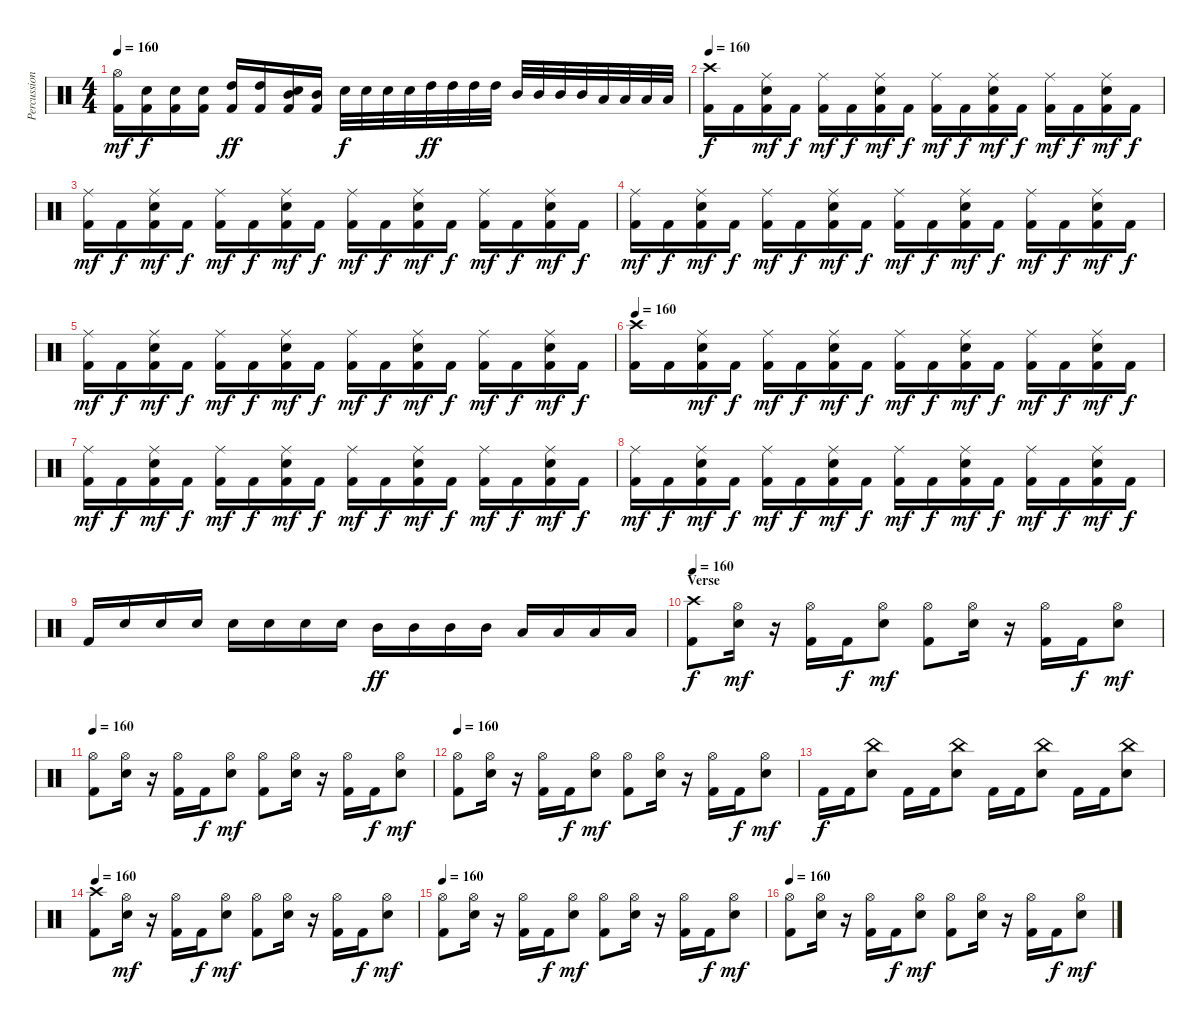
\track ("Percussion" "Percussion") {instrument percussion}
\staff {score}
\articulation defaults
\ts (4 4)
\tempo 160
\clef neutral
\ks c
("Hi-Hat (open)" "Kick (hit) 2").16{dy mf} ("Electric Snare (hit)" "Kick (hit) 2").16{dy f} ("Electric Snare (hit)" "Kick (hit) 2").16 ("Electric Snare (hit)" "Kick (hit) 2").16 ("High Tom (hit)" "Kick (hit) 2").16{dy ff} ("High Tom (hit)" "Kick (hit) 2").16 ("Mid Tom (hit)" "Electric Snare (hit)" "Kick (hit) 2").16 ("Mid Tom (hit)" "Kick (hit) 2").16 "Electric Snare (hit)".32{dy f} "Electric Snare (hit)".32 "Electric Snare (hit)".32 "Electric Snare (hit)".32 "High Tom (hit)".32{dy ff} "High Tom (hit)".32 "High Tom (hit)".32 "High Tom (hit)".32 "Mid Tom (hit)".32 "Mid Tom (hit)".32 "Mid Tom (hit)".32 "Mid Tom (hit)".32 "Low Tom (hit)".32 "Low Tom (hit)".32 "Low Tom (hit)".32 "Low Tom (hit)".32 |
\tempo 160
("Crash high (hit)" "Kick (hit) 2").16{dy f} "Kick (hit) 2".16 ("Ride (middle)" "Electric Snare (hit)" "Kick (hit) 2").16{dy mf} "Kick (hit) 2".16{dy f} ("Ride (middle)" "Kick (hit) 2").16{dy mf} "Kick (hit) 2".16{dy f} ("Ride (middle)" "Electric Snare (hit)" "Kick (hit) 2").16{dy mf} "Kick (hit) 2".16{dy f} ("Ride (middle)" "Kick (hit) 2").16{dy mf} "Kick (hit) 2".16{dy f} ("Ride (middle)" "Electric Snare (hit)" "Kick (hit) 2").16{dy mf} "Kick (hit) 2".16{dy f} ("Ride (middle)" "Kick (hit) 2").16{dy mf} "Kick (hit) 2".16{dy f} ("Ride (middle)" "Electric Snare (hit)" "Kick (hit) 2").16{dy mf} "Kick (hit) 2".16{dy f} |
("Ride (middle)" "Kick (hit) 2").16{dy mf} "Kick (hit) 2".16{dy f} ("Ride (middle)" "Electric Snare (hit)" "Kick (hit) 2").16{dy mf} "Kick (hit) 2".16{dy f} ("Ride (middle)" "Kick (hit) 2").16{dy mf} "Kick (hit) 2".16{dy f} ("Ride (middle)" "Electric Snare (hit)" "Kick (hit) 2").16{dy mf} "Kick (hit) 2".16{dy f} ("Ride (middle)" "Kick (hit) 2").16{dy mf} "Kick (hit) 2".16{dy f} ("Ride (middle)" "Electric Snare (hit)" "Kick (hit) 2").16{dy mf} "Kick (hit) 2".16{dy f} ("Ride (middle)" "Kick (hit) 2").16{dy mf} "Kick (hit) 2".16{dy f} ("Ride (middle)" "Electric Snare (hit)" "Kick (hit) 2").16{dy mf} "Kick (hit) 2".16{dy f} |
("Ride (middle)" "Kick (hit) 2").16{dy mf} "Kick (hit) 2".16{dy f} ("Ride (middle)" "Electric Snare (hit)" "Kick (hit) 2").16{dy mf} "Kick (hit) 2".16{dy f} ("Ride (middle)" "Kick (hit) 2").16{dy mf} "Kick (hit) 2".16{dy f} ("Ride (middle)" "Electric Snare (hit)" "Kick (hit) 2").16{dy mf} "Kick (hit) 2".16{dy f} ("Ride (middle)" "Kick (hit) 2").16{dy mf} "Kick (hit) 2".16{dy f} ("Ride (middle)" "Electric Snare (hit)" "Kick (hit) 2").16{dy mf} "Kick (hit) 2".16{dy f} ("Ride (middle)" "Kick (hit) 2").16{dy mf} "Kick (hit) 2".16{dy f} ("Ride (middle)" "Electric Snare (hit)" "Kick (hit) 2").16{dy mf} "Kick (hit) 2".16{dy f} |
("Ride (middle)" "Kick (hit) 2").16{dy mf} "Kick (hit) 2".16{dy f} ("Ride (middle)" "Electric Snare (hit)" "Kick (hit) 2").16{dy mf} "Kick (hit) 2".16{dy f} ("Ride (middle)" "Kick (hit) 2").16{dy mf} "Kick (hit) 2".16{dy f} ("Ride (middle)" "Electric Snare (hit)" "Kick (hit) 2").16{dy mf} "Kick (hit) 2".16{dy f} ("Ride (middle)" "Kick (hit) 2").16{dy mf} "Kick (hit) 2".16{dy f} ("Ride (middle)" "Electric Snare (hit)" "Kick (hit) 2").16{dy mf} "Kick (hit) 2".16{dy f} ("Ride (middle)" "Kick (hit) 2").16{dy mf} "Kick (hit) 2".16{dy f} ("Ride (middle)" "Electric Snare (hit)" "Kick (hit) 2").16{dy mf} "Kick (hit) 2".16{dy f} |
\tempo 160
("Crash high (hit)" "Kick (hit) 2").16 "Kick (hit) 2".16 ("Ride (middle)" "Electric Snare (hit)" "Kick (hit) 2").16{dy mf} "Kick (hit) 2".16{dy f} ("Ride (middle)" "Kick (hit) 2").16{dy mf} "Kick (hit) 2".16{dy f} ("Ride (middle)" "Electric Snare (hit)" "Kick (hit) 2").16{dy mf} "Kick (hit) 2".16{dy f} ("Ride (middle)" "Kick (hit) 2").16{dy mf} "Kick (hit) 2".16{dy f} ("Ride (middle)" "Electric Snare (hit)" "Kick (hit) 2").16{dy mf} "Kick (hit) 2".16{dy f} ("Ride (middle)" "Kick (hit) 2").16{dy mf} "Kick (hit) 2".16{dy f} ("Ride (middle)" "Electric Snare (hit)" "Kick (hit) 2").16{dy mf} "Kick (hit) 2".16{dy f} |
("Ride (middle)" "Kick (hit) 2").16{dy mf} "Kick (hit) 2".16{dy f} ("Ride (middle)" "Electric Snare (hit)" "Kick (hit) 2").16{dy mf} "Kick (hit) 2".16{dy f} ("Ride (middle)" "Kick (hit) 2").16{dy mf} "Kick (hit) 2".16{dy f} ("Ride (middle)" "Electric Snare (hit)" "Kick (hit) 2").16{dy mf} "Kick (hit) 2".16{dy f} ("Ride (middle)" "Kick (hit) 2").16{dy mf} "Kick (hit) 2".16{dy f} ("Ride (middle)" "Electric Snare (hit)" "Kick (hit) 2").16{dy mf} "Kick (hit) 2".16{dy f} ("Ride (middle)" "Kick (hit) 2").16{dy mf} "Kick (hit) 2".16{dy f} ("Ride (middle)" "Electric Snare (hit)" "Kick (hit) 2").16{dy mf} "Kick (hit) 2".16{dy f} |
("Ride (middle)" "Kick (hit) 2").16{dy mf} "Kick (hit) 2".16{dy f} ("Ride (middle)" "Electric Snare (hit)" "Kick (hit) 2").16{dy mf} "Kick (hit) 2".16{dy f} ("Ride (middle)" "Kick (hit) 2").16{dy mf} "Kick (hit) 2".16{dy f} ("Ride (middle)" "Electric Snare (hit)" "Kick (hit) 2").16{dy mf} "Kick (hit) 2".16{dy f} ("Ride (middle)" "Kick (hit) 2").16{dy mf} "Kick (hit) 2".16{dy f} ("Ride (middle)" "Electric Snare (hit)" "Kick (hit) 2").16{dy mf} "Kick (hit) 2".16{dy f} ("Ride (middle)" "Kick (hit) 2").16{dy mf} "Kick (hit) 2".16{dy f} ("Ride (middle)" "Electric Snare (hit)" "Kick (hit) 2").16{dy mf} "Kick (hit) 2".16{dy f} |
"Kick (hit) 2".16 "Electric Snare (hit)".16 "Electric Snare (hit)".16 "Electric Snare (hit)".16 "Electric Snare (hit)".16 "Electric Snare (hit)".16 "Electric Snare (hit)".16 "Electric Snare (hit)".16 "Mid Tom (hit)".16{dy ff} "Mid Tom (hit)".16 "Mid Tom (hit)".16 "Mid Tom (hit)".16 "Low Tom (hit)".16 "Low Tom (hit)".16 "Low Tom (hit)".16 "Low Tom (hit)".16 |
\section ("" "Verse")
\tempo 160
("Crash high (hit)" "Kick (hit) 2").8{dy f} ("Hi-Hat (open)" "Electric Snare (hit)").16{dy mf} r.16 ("Hi-Hat (open)" "Kick (hit) 2").16 "Kick (hit) 2".16{dy f} ("Hi-Hat (open)" "Electric Snare (hit)").8{dy mf} ("Hi-Hat (open)" "Kick (hit) 2").8 ("Hi-Hat (open)" "Electric Snare (hit)").16 r.16 ("Hi-Hat (open)" "Kick (hit) 2").16 "Kick (hit) 2".16{dy f} ("Hi-Hat (open)" "Electric Snare (hit)").8{dy mf} |
\tempo 160
("Hi-Hat (open)" "Kick (hit) 2").8 ("Hi-Hat (open)" "Electric Snare (hit)").16 r.16 ("Hi-Hat (open)" "Kick (hit) 2").16 "Kick (hit) 2".16{dy f} ("Hi-Hat (open)" "Electric Snare (hit)").8{dy mf} ("Hi-Hat (open)" "Kick (hit) 2").8 ("Hi-Hat (open)" "Electric Snare (hit)").16 r.16 ("Hi-Hat (open)" "Kick (hit) 2").16 "Kick (hit) 2".16{dy f} ("Hi-Hat (open)" "Electric Snare (hit)").8{dy mf} |
\tempo 160
("Hi-Hat (open)" "Kick (hit) 2").8 ("Hi-Hat (open)" "Electric Snare (hit)").16 r.16 ("Hi-Hat (open)" "Kick (hit) 2").16 "Kick (hit) 2".16{dy f} ("Hi-Hat (open)" "Electric Snare (hit)").8{dy mf} ("Hi-Hat (open)" "Kick (hit) 2").8 ("Hi-Hat (open)" "Electric Snare (hit)").16 r.16 ("Hi-Hat (open)" "Kick (hit) 2").16 "Kick (hit) 2".16{dy f} ("Hi-Hat (open)" "Electric Snare (hit)").8{dy mf} |
"Kick (hit) 2".16{dy f} "Kick (hit) 2".16 ("China (hit)" "Electric Snare (hit)").8 "Kick (hit) 2".16 "Kick (hit) 2".16 ("China (hit)" "Electric Snare (hit)").8 "Kick (hit) 2".16 "Kick (hit) 2".16 ("China (hit)" "Electric Snare (hit)").8 "Kick (hit) 2".16 "Kick (hit) 2".16 ("China (hit)" "Electric Snare (hit)").8 |
\tempo 160
("Crash high (hit)" "Kick (hit) 2").8 ("Hi-Hat (open)" "Electric Snare (hit)").16{dy mf} r.16 ("Hi-Hat (open)" "Kick (hit) 2").16 "Kick (hit) 2".16{dy f} ("Hi-Hat (open)" "Electric Snare (hit)").8{dy mf} ("Hi-Hat (open)" "Kick (hit) 2").8 ("Hi-Hat (open)" "Electric Snare (hit)").16 r.16 ("Hi-Hat (open)" "Kick (hit) 2").16 "Kick (hit) 2".16{dy f} ("Hi-Hat (open)" "Electric Snare (hit)").8{dy mf} |
\tempo 160
("Hi-Hat (open)" "Kick (hit) 2").8 ("Hi-Hat (open)" "Electric Snare (hit)").16 r.16 ("Hi-Hat (open)" "Kick (hit) 2").16 "Kick (hit) 2".16{dy f} ("Hi-Hat (open)" "Electric Snare (hit)").8{dy mf} ("Hi-Hat (open)" "Kick (hit) 2").8 ("Hi-Hat (open)" "Electric Snare (hit)").16 r.16 ("Hi-Hat (open)" "Kick (hit) 2").16 "Kick (hit) 2".16{dy f} ("Hi-Hat (open)" "Electric Snare (hit)").8{dy mf} |
\tempo 160
("Hi-Hat (open)" "Kick (hit) 2").8 ("Hi-Hat (open)" "Electric Snare (hit)").16 r.16 ("Hi-Hat (open)" "Kick (hit) 2").16 "Kick (hit) 2".16{dy f} ("Hi-Hat (open)" "Electric Snare (hit)").8{dy mf} ("Hi-Hat (open)" "Kick (hit) 2").8 ("Hi-Hat (open)" "Electric Snare (hit)").16 r.16 ("Hi-Hat (open)" "Kick (hit) 2").16 "Kick (hit) 2".16{dy f} ("Hi-Hat (open)" "Electric Snare (hit)").8{dy mf}
